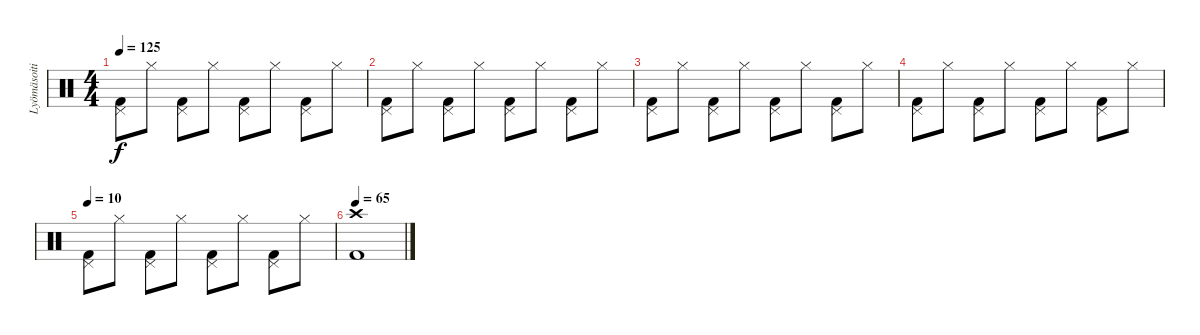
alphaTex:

\track ("Lyömäsoitin" "Lyömäsoiti") {instrument percussion}
\staff {score}
\articulation defaults
\ts (4 4)
\tempo 125
\clef neutral
\ks c
("Pedal Hi-Hat (hit)" "Kick (hit) 2").8{dy f} "Hi-Hat (closed)".8 ("Pedal Hi-Hat (hit)" "Kick (hit) 2").8 "Hi-Hat (closed)".8 ("Pedal Hi-Hat (hit)" "Kick (hit) 2").8 "Hi-Hat (closed)".8 ("Pedal Hi-Hat (hit)" "Kick (hit) 2").8 "Hi-Hat (closed)".8 |
("Pedal Hi-Hat (hit)" "Kick (hit) 2").8 "Hi-Hat (closed)".8 ("Pedal Hi-Hat (hit)" "Kick (hit) 2").8 "Hi-Hat (closed)".8 ("Pedal Hi-Hat (hit)" "Kick (hit) 2").8 "Hi-Hat (closed)".8 ("Pedal Hi-Hat (hit)" "Kick (hit) 2").8 "Hi-Hat (closed)".8 |
("Pedal Hi-Hat (hit)" "Kick (hit) 2").8 "Hi-Hat (closed)".8 ("Pedal Hi-Hat (hit)" "Kick (hit) 2").8 "Hi-Hat (closed)".8 ("Pedal Hi-Hat (hit)" "Kick (hit) 2").8 "Hi-Hat (closed)".8 ("Pedal Hi-Hat (hit)" "Kick (hit) 2").8 "Hi-Hat (closed)".8 |
("Pedal Hi-Hat (hit)" "Kick (hit) 2").8 "Hi-Hat (closed)".8 ("Pedal Hi-Hat (hit)" "Kick (hit) 2").8 "Hi-Hat (closed)".8 ("Pedal Hi-Hat (hit)" "Kick (hit) 2").8 "Hi-Hat (closed)".8 ("Pedal Hi-Hat (hit)" "Kick (hit) 2").8 "Hi-Hat (closed)".8 |
\tempo 10
("Pedal Hi-Hat (hit)" "Kick (hit) 2").8 "Hi-Hat (closed)".8 ("Pedal Hi-Hat (hit)" "Kick (hit) 2").8 "Hi-Hat (closed)".8 ("Pedal Hi-Hat (hit)" "Kick (hit) 2").8 "Hi-Hat (closed)".8 ("Pedal Hi-Hat (hit)" "Kick (hit) 2").8 "Hi-Hat (closed)".8 |
\tempo 65
("Crash high (hit)" "Kick (hit) 2").1
